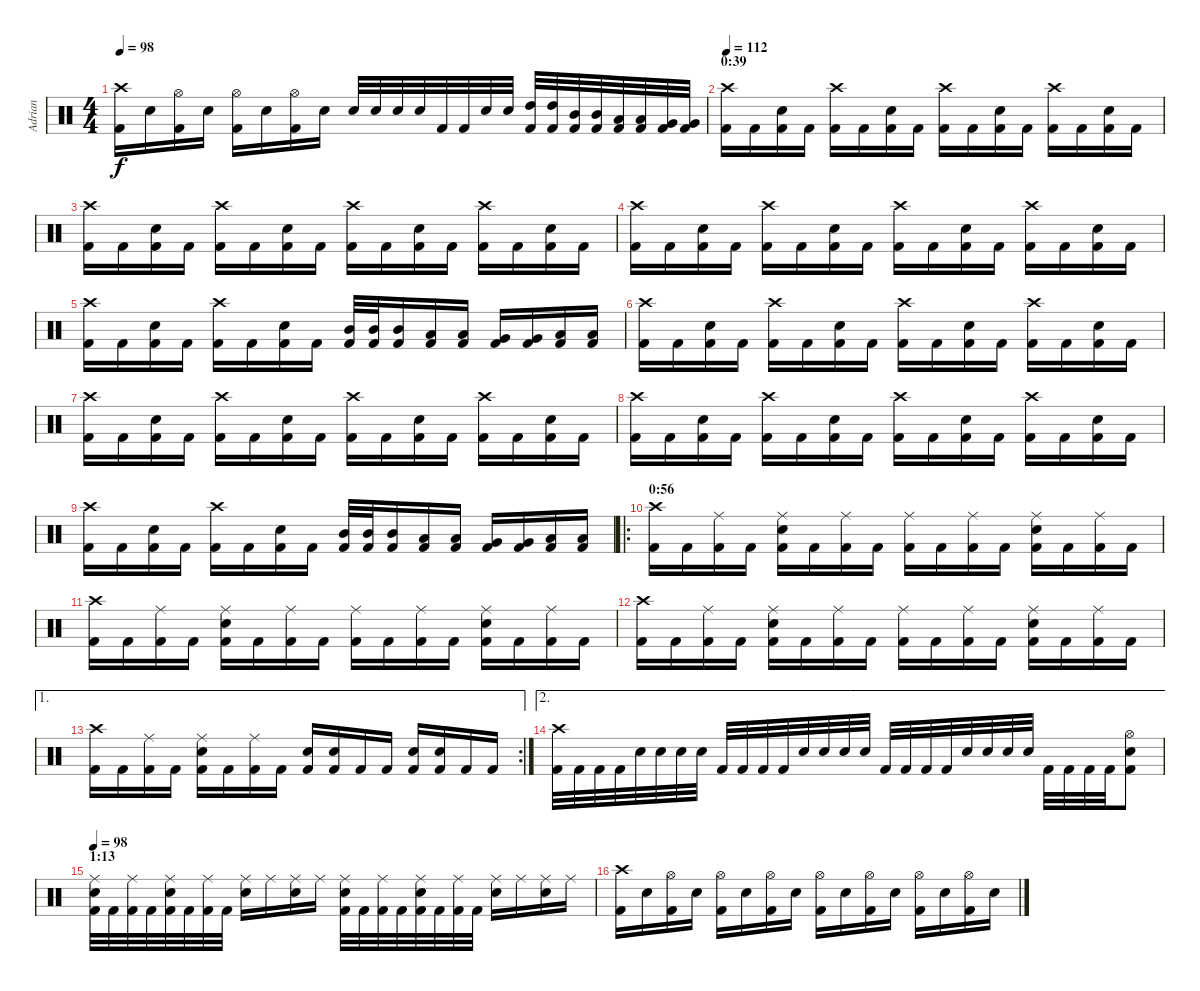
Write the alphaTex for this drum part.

\track ("Adrian" "Adrian") {instrument percussion}
\staff {score}
\articulation defaults
\ts (4 4)
\tempo 98
\clef neutral
\ks c
("Kick (hit) 2" "Crash high (hit)").16{dy f} "Snare (hit) 2".16 ("Kick (hit) 2" "Hi-Hat (open)").16 "Snare (hit) 2".16 ("Kick (hit) 2" "Hi-Hat (open)").16 "Snare (hit) 2".16 ("Kick (hit) 2" "Hi-Hat (open)").16 "Snare (hit) 2".16 "Snare (hit) 2".32 "Snare (hit) 2".32 "Snare (hit) 2".32 "Snare (hit) 2".32 "Kick (hit) 2".32 "Kick (hit) 2".32 "Snare (hit) 2".32 "Snare (hit) 2".32 ("Kick (hit) 2" "High Tom (hit)").32 ("Kick (hit) 2" "High Tom (hit)").32 ("Kick (hit) 2" "Mid Tom (hit)").32 ("Kick (hit) 2" "Mid Tom (hit)").32 ("Kick (hit) 2" "Low Tom (hit)").32 ("Kick (hit) 2" "Low Tom (hit)").32 ("Kick (hit) 2" "Very Low Tom (hit)").32 ("Kick (hit) 2" "Very Low Tom (hit)").32 |
\section ("" "0:39")
\tempo 112
("Kick (hit) 2" "Crash high (hit)").16 "Kick (hit) 2".16 ("Kick (hit) 2" "Snare (hit) 2").16 "Kick (hit) 2".16 ("Kick (hit) 2" "Crash high (hit)").16 "Kick (hit) 2".16 ("Kick (hit) 2" "Snare (hit) 2").16 "Kick (hit) 2".16 ("Kick (hit) 2" "Crash high (hit)").16 "Kick (hit) 2".16 ("Kick (hit) 2" "Snare (hit) 2").16 "Kick (hit) 2".16 ("Kick (hit) 2" "Crash high (hit)").16 "Kick (hit) 2".16 ("Kick (hit) 2" "Snare (hit) 2").16 "Kick (hit) 2".16 |
("Kick (hit) 2" "Crash high (hit)").16 "Kick (hit) 2".16 ("Kick (hit) 2" "Snare (hit) 2").16 "Kick (hit) 2".16 ("Kick (hit) 2" "Crash high (hit)").16 "Kick (hit) 2".16 ("Kick (hit) 2" "Snare (hit) 2").16 "Kick (hit) 2".16 ("Kick (hit) 2" "Crash high (hit)").16 "Kick (hit) 2".16 ("Kick (hit) 2" "Snare (hit) 2").16 "Kick (hit) 2".16 ("Kick (hit) 2" "Crash high (hit)").16 "Kick (hit) 2".16 ("Kick (hit) 2" "Snare (hit) 2").16 "Kick (hit) 2".16 |
("Kick (hit) 2" "Crash high (hit)").16 "Kick (hit) 2".16 ("Kick (hit) 2" "Snare (hit) 2").16 "Kick (hit) 2".16 ("Kick (hit) 2" "Crash high (hit)").16 "Kick (hit) 2".16 ("Kick (hit) 2" "Snare (hit) 2").16 "Kick (hit) 2".16 ("Kick (hit) 2" "Crash high (hit)").16 "Kick (hit) 2".16 ("Kick (hit) 2" "Snare (hit) 2").16 "Kick (hit) 2".16 ("Kick (hit) 2" "Crash high (hit)").16 "Kick (hit) 2".16 ("Kick (hit) 2" "Snare (hit) 2").16 "Kick (hit) 2".16 |
("Kick (hit) 2" "Crash high (hit)").16 "Kick (hit) 2".16 ("Kick (hit) 2" "Snare (hit) 2").16 "Kick (hit) 2".16 ("Kick (hit) 2" "Crash high (hit)").16 "Kick (hit) 2".16 ("Kick (hit) 2" "Snare (hit) 2").16 "Kick (hit) 2".16 ("Kick (hit) 2" "Mid Tom (hit)").32 ("Kick (hit) 2" "Mid Tom (hit)").32 ("Kick (hit) 2" "Mid Tom (hit)").16 ("Kick (hit) 2" "Low Tom (hit)").16 ("Kick (hit) 2" "Low Tom (hit)").16 ("Kick (hit) 2" "Very Low Tom (hit)").16 ("Kick (hit) 2" "Very Low Tom (hit)").16 ("Kick (hit) 2" "Low Floor Tom (hit)").16 ("Kick (hit) 2" "Low Floor Tom (hit)").16 |
("Kick (hit) 2" "Crash high (hit)").16 "Kick (hit) 2".16 ("Kick (hit) 2" "Snare (hit) 2").16 "Kick (hit) 2".16 ("Kick (hit) 2" "Crash high (hit)").16 "Kick (hit) 2".16 ("Kick (hit) 2" "Snare (hit) 2").16 "Kick (hit) 2".16 ("Kick (hit) 2" "Crash high (hit)").16 "Kick (hit) 2".16 ("Kick (hit) 2" "Snare (hit) 2").16 "Kick (hit) 2".16 ("Kick (hit) 2" "Crash high (hit)").16 "Kick (hit) 2".16 ("Kick (hit) 2" "Snare (hit) 2").16 "Kick (hit) 2".16 |
("Kick (hit) 2" "Crash high (hit)").16 "Kick (hit) 2".16 ("Kick (hit) 2" "Snare (hit) 2").16 "Kick (hit) 2".16 ("Kick (hit) 2" "Crash high (hit)").16 "Kick (hit) 2".16 ("Kick (hit) 2" "Snare (hit) 2").16 "Kick (hit) 2".16 ("Kick (hit) 2" "Crash high (hit)").16 "Kick (hit) 2".16 ("Kick (hit) 2" "Snare (hit) 2").16 "Kick (hit) 2".16 ("Kick (hit) 2" "Crash high (hit)").16 "Kick (hit) 2".16 ("Kick (hit) 2" "Snare (hit) 2").16 "Kick (hit) 2".16 |
("Kick (hit) 2" "Crash high (hit)").16 "Kick (hit) 2".16 ("Kick (hit) 2" "Snare (hit) 2").16 "Kick (hit) 2".16 ("Kick (hit) 2" "Crash high (hit)").16 "Kick (hit) 2".16 ("Kick (hit) 2" "Snare (hit) 2").16 "Kick (hit) 2".16 ("Kick (hit) 2" "Crash high (hit)").16 "Kick (hit) 2".16 ("Kick (hit) 2" "Snare (hit) 2").16 "Kick (hit) 2".16 ("Kick (hit) 2" "Crash high (hit)").16 "Kick (hit) 2".16 ("Kick (hit) 2" "Snare (hit) 2").16 "Kick (hit) 2".16 |
("Kick (hit) 2" "Crash high (hit)").16 "Kick (hit) 2".16 ("Kick (hit) 2" "Snare (hit) 2").16 "Kick (hit) 2".16 ("Kick (hit) 2" "Crash high (hit)").16 "Kick (hit) 2".16 ("Kick (hit) 2" "Snare (hit) 2").16 "Kick (hit) 2".16 ("Kick (hit) 2" "Mid Tom (hit)").32 ("Kick (hit) 2" "Mid Tom (hit)").32 ("Kick (hit) 2" "Mid Tom (hit)").16 ("Kick (hit) 2" "Low Tom (hit)").16 ("Kick (hit) 2" "Low Tom (hit)").16 ("Kick (hit) 2" "Very Low Tom (hit)").16 ("Kick (hit) 2" "Very Low Tom (hit)").16 ("Kick (hit) 2" "Low Floor Tom (hit)").16 ("Kick (hit) 2" "Low Floor Tom (hit)").16 |
\ro
\section ("" "0:56")
("Kick (hit) 2" "Crash high (hit)").16 "Kick (hit) 2".16 ("Kick (hit) 2" "Ride (middle)").16 "Kick (hit) 2".16 ("Kick (hit) 2" "Snare (hit) 2" "Ride (middle)").16 "Kick (hit) 2".16 ("Kick (hit) 2" "Ride (middle)").16 "Kick (hit) 2".16 ("Kick (hit) 2" "Ride (middle)").16 "Kick (hit) 2".16 ("Kick (hit) 2" "Ride (middle)").16 "Kick (hit) 2".16 ("Kick (hit) 2" "Snare (hit) 2" "Ride (middle)").16 "Kick (hit) 2".16 ("Kick (hit) 2" "Ride (middle)").16 "Kick (hit) 2".16 |
("Kick (hit) 2" "Crash high (hit)").16 "Kick (hit) 2".16 ("Kick (hit) 2" "Ride (middle)").16 "Kick (hit) 2".16 ("Kick (hit) 2" "Snare (hit) 2" "Ride (middle)").16 "Kick (hit) 2".16 ("Kick (hit) 2" "Ride (middle)").16 "Kick (hit) 2".16 ("Kick (hit) 2" "Ride (middle)").16 "Kick (hit) 2".16 ("Kick (hit) 2" "Ride (middle)").16 "Kick (hit) 2".16 ("Kick (hit) 2" "Snare (hit) 2" "Ride (middle)").16 "Kick (hit) 2".16 ("Kick (hit) 2" "Ride (middle)").16 "Kick (hit) 2".16 |
("Kick (hit) 2" "Crash high (hit)").16 "Kick (hit) 2".16 ("Kick (hit) 2" "Ride (middle)").16 "Kick (hit) 2".16 ("Kick (hit) 2" "Snare (hit) 2" "Ride (middle)").16 "Kick (hit) 2".16 ("Kick (hit) 2" "Ride (middle)").16 "Kick (hit) 2".16 ("Kick (hit) 2" "Ride (middle)").16 "Kick (hit) 2".16 ("Kick (hit) 2" "Ride (middle)").16 "Kick (hit) 2".16 ("Kick (hit) 2" "Snare (hit) 2" "Ride (middle)").16 "Kick (hit) 2".16 ("Kick (hit) 2" "Ride (middle)").16 "Kick (hit) 2".16 |
\ae 1
\rc 2
("Kick (hit) 2" "Crash high (hit)").16 "Kick (hit) 2".16 ("Kick (hit) 2" "Ride (middle)").16 "Kick (hit) 2".16 ("Kick (hit) 2" "Snare (hit) 2" "Ride (middle)").16 "Kick (hit) 2".16 ("Kick (hit) 2" "Ride (middle)").16 "Kick (hit) 2".16 ("Kick (hit) 2" "Snare (hit) 2").16 ("Kick (hit) 2" "Snare (hit) 2").16 "Kick (hit) 2".16 "Kick (hit) 2".16 ("Kick (hit) 2" "Snare (hit) 2").16 ("Kick (hit) 2" "Snare (hit) 2").16 "Kick (hit) 2".16 "Kick (hit) 2".16 |
\ae 2
("Kick (hit) 2" "Crash high (hit)").32 "Kick (hit) 2".32 "Kick (hit) 2".32 "Kick (hit) 2".32 "Snare (hit) 2".32 "Snare (hit) 2".32 "Snare (hit) 2".32 "Snare (hit) 2".32 "Kick (hit) 2".32 "Kick (hit) 2".32 "Kick (hit) 2".32 "Kick (hit) 2".32 "Snare (hit) 2".32 "Snare (hit) 2".32 "Snare (hit) 2".32 "Snare (hit) 2".32 "Kick (hit) 2".32 "Kick (hit) 2".32 "Kick (hit) 2".32 "Kick (hit) 2".32 "Snare (hit) 2".32 "Snare (hit) 2".32 "Snare (hit) 2".32 "Snare (hit) 2".32 "Kick (hit) 2".32 "Kick (hit) 2".32 "Kick (hit) 2".32 "Kick (hit) 2".32 ("Kick (hit) 2" "Snare (hit) 2" "Hi-Hat (open)").8 |
\section ("" "1:13")
\tempo 98
("Kick (hit) 2" "Snare (hit) 2" "Ride (middle)").32 "Kick (hit) 2".32 ("Kick (hit) 2" "Ride (middle)").32 "Kick (hit) 2".32 ("Kick (hit) 2" "Snare (hit) 2" "Ride (middle)").32 "Kick (hit) 2".32 ("Kick (hit) 2" "Ride (middle)").32 "Kick (hit) 2".32 ("Snare (hit) 2" "Ride (middle)").16 "Ride (middle)".16 ("Snare (hit) 2" "Ride (middle)").16 "Ride (middle)".16 ("Kick (hit) 2" "Snare (hit) 2" "Ride (middle)").32 "Kick (hit) 2".32 ("Kick (hit) 2" "Ride (middle)").32 "Kick (hit) 2".32 ("Kick (hit) 2" "Snare (hit) 2" "Ride (middle)").32 "Kick (hit) 2".32 ("Kick (hit) 2" "Ride (middle)").32 "Kick (hit) 2".32 ("Snare (hit) 2" "Ride (middle)").16 "Ride (middle)".16 ("Snare (hit) 2" "Ride (middle)").16 "Ride (middle)".16 |
("Kick (hit) 2" "Crash high (hit)").16 "Snare (hit) 2".16 ("Kick (hit) 2" "Hi-Hat (open)").16 "Snare (hit) 2".16 ("Kick (hit) 2" "Hi-Hat (open)").16 "Snare (hit) 2".16 ("Kick (hit) 2" "Hi-Hat (open)").16 "Snare (hit) 2".16 ("Kick (hit) 2" "Hi-Hat (open)").16 "Snare (hit) 2".16 ("Kick (hit) 2" "Hi-Hat (open)").16 "Snare (hit) 2".16 ("Kick (hit) 2" "Hi-Hat (open)").16 "Snare (hit) 2".16 ("Kick (hit) 2" "Hi-Hat (open)").16 "Snare (hit) 2".16
